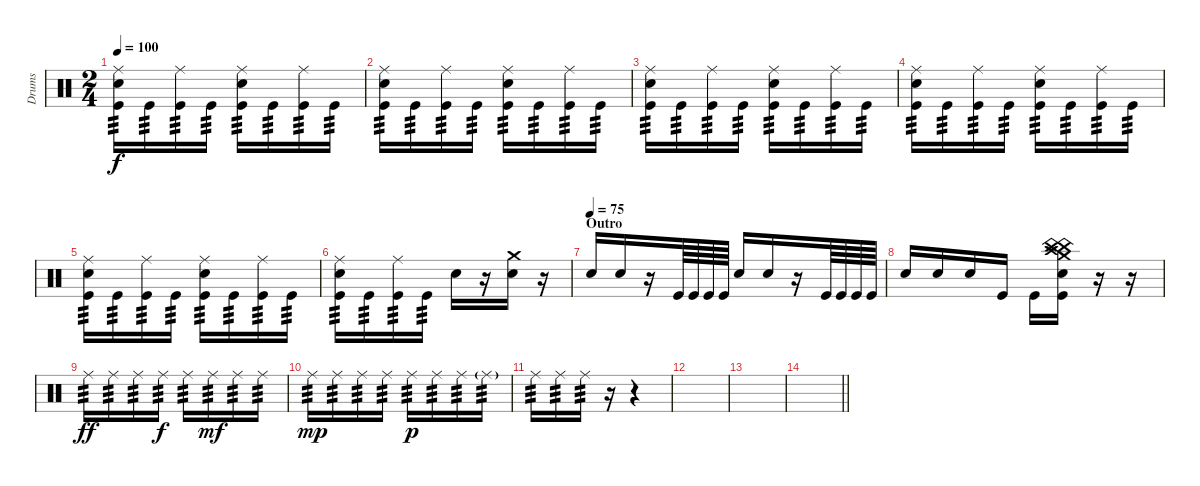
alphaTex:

\track ("Drums" "Drums") {instrument percussion}
\staff {score}
\articulation defaults
\ts (2 4)
\tempo 100
\clef neutral
\ks c
("Kick (hit)" "Ride (middle)" "Electric Snare (hit)").16{tp 3 dy f} "Kick (hit)".16{tp 3} ("Kick (hit)" "Ride (middle)").16{tp 3} "Kick (hit)".16{tp 3} ("Kick (hit)" "Ride (middle)" "Electric Snare (hit)").16{tp 3} "Kick (hit)".16{tp 3} ("Kick (hit)" "Ride (middle)").16{tp 3} "Kick (hit)".16{tp 3} |
("Kick (hit)" "Ride (middle)" "Electric Snare (hit)").16{tp 3} "Kick (hit)".16{tp 3} ("Kick (hit)" "Ride (middle)").16{tp 3} "Kick (hit)".16{tp 3} ("Kick (hit)" "Ride (middle)" "Electric Snare (hit)").16{tp 3} "Kick (hit)".16{tp 3} ("Kick (hit)" "Ride (middle)").16{tp 3} "Kick (hit)".16{tp 3} |
("Kick (hit)" "Ride (middle)" "Electric Snare (hit)").16{tp 3} "Kick (hit)".16{tp 3} ("Kick (hit)" "Ride (middle)").16{tp 3} "Kick (hit)".16{tp 3} ("Kick (hit)" "Ride (middle)" "Electric Snare (hit)").16{tp 3} "Kick (hit)".16{tp 3} ("Kick (hit)" "Ride (middle)").16{tp 3} "Kick (hit)".16{tp 3} |
("Kick (hit)" "Ride (middle)" "Electric Snare (hit)").16{tp 3} "Kick (hit)".16{tp 3} ("Kick (hit)" "Ride (middle)").16{tp 3} "Kick (hit)".16{tp 3} ("Kick (hit)" "Ride (middle)" "Electric Snare (hit)").16{tp 3} "Kick (hit)".16{tp 3} ("Kick (hit)" "Ride (middle)").16{tp 3} "Kick (hit)".16{tp 3} |
("Kick (hit)" "Ride (middle)" "Electric Snare (hit)").16{tp 3} "Kick (hit)".16{tp 3} ("Kick (hit)" "Ride (middle)").16{tp 3} "Kick (hit)".16{tp 3} ("Kick (hit)" "Ride (middle)" "Electric Snare (hit)").16{tp 3} "Kick (hit)".16{tp 3} ("Kick (hit)" "Ride (middle)").16{tp 3} "Kick (hit)".16{tp 3} |
("Kick (hit)" "Ride (middle)" "Electric Snare (hit)").16{tp 3} "Kick (hit)".16{tp 3} ("Kick (hit)" "Ride (middle)").16{tp 3} "Kick (hit)".16{tp 3} "Electric Snare (hit)".16 r.16 ("Crash medium (hit)" "Electric Snare (hit)").16 r.16 |
\section ("" "Outro")
\tempo (75)
"Electric Snare (hit)".16 "Electric Snare (hit)".16 r.16 "Kick (hit)".64 "Kick (hit)".64 "Kick (hit)".64 "Kick (hit)".64 "Electric Snare (hit)".16 "Electric Snare (hit)".16 r.16 "Kick (hit)".64 "Kick (hit)".64 "Kick (hit)".64 "Kick (hit)".64 |
"Electric Snare (hit)".16 "Electric Snare (hit)".16 "Electric Snare (hit)".16 "Kick (hit)".16 "Kick (hit)".16 ("Crash medium (hit)" "Kick (hit)" "Crash high (hit)" "Electric Snare (hit)" "China (hit)" "China (hit)").16 r.16 r.16 |
"Ride (middle)".16{tp 3 dy ff} "Ride (middle)".16{tp 3} "Ride (middle)".16{tp 3} "Ride (middle)".16{tp 3 dy f} "Ride (middle)".16{tp 3} "Ride (middle)".16{tp 3 dy mf} "Ride (middle)".16{tp 3} "Ride (middle)".16{tp 3} |
"Ride (middle)".16{tp 3 dy mp} "Ride (middle)".16{tp 3} "Ride (middle)".16{tp 3} "Ride (middle)".16{tp 3} "Ride (middle)".16{tp 3 dy p} "Ride (middle)".16{tp 3} "Ride (middle)".16{tp 3} "Ride (middle)"{g}.16{tp 3} |
"Ride (middle)".16{tp 3} "Ride (middle)".16{tp 3} "Ride (middle)".16{tp 3} r.16 r.4 |
|
|
\barLineRight lightlight
